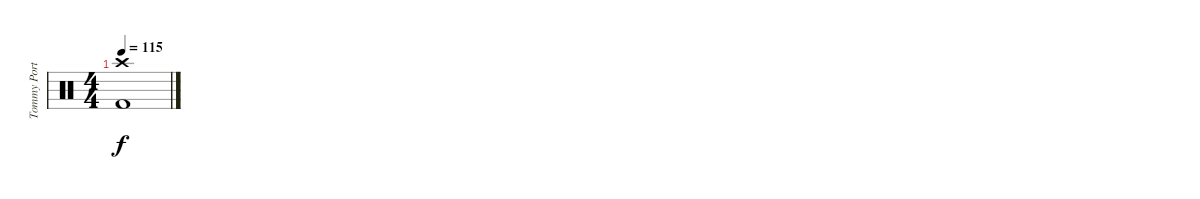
\track ("Tommy Portino - Drums" "Tommy Port") {instrument percussion}
\staff {score}
\articulation defaults
\ts (4 4)
\tempo 115
\clef neutral
\ks c
("Crash high (hit)" "Kick (hit) 2").1{dy f}
